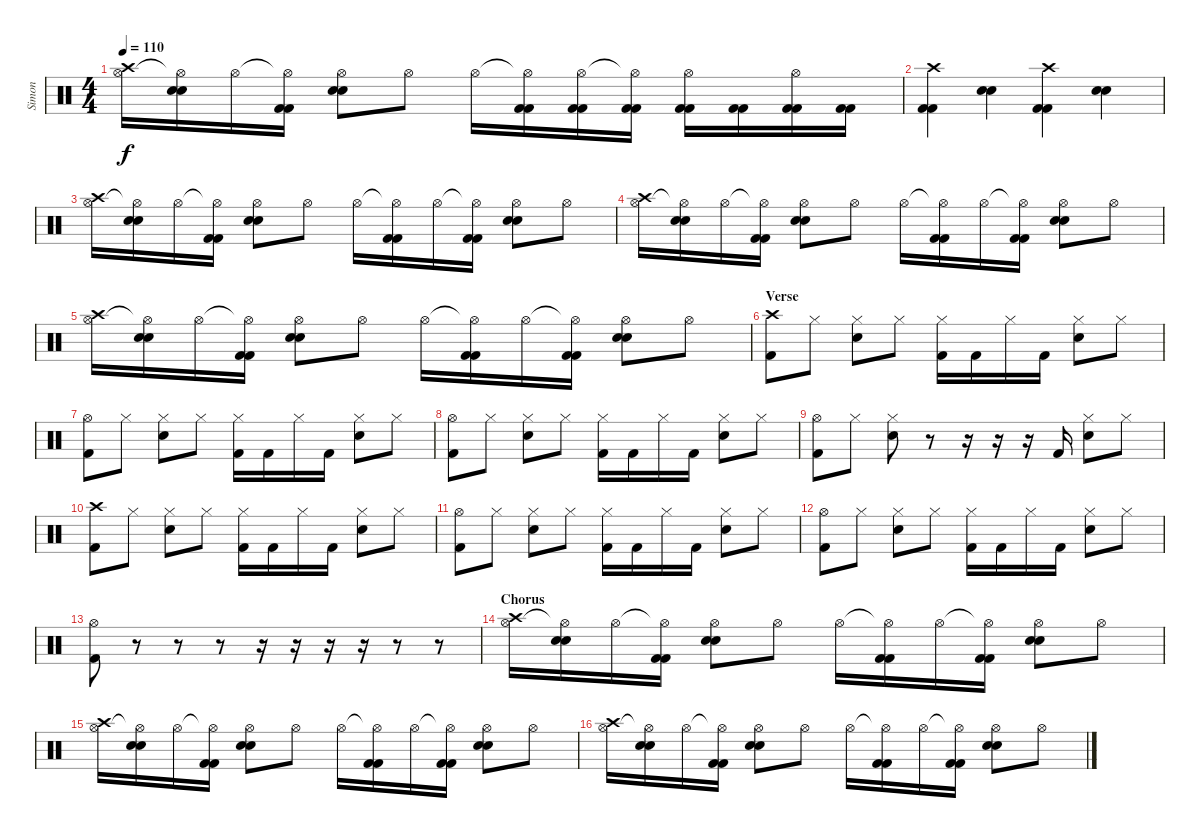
\track ("Simon" "Simon") {instrument percussion}
\staff {score}
\articulation defaults
\ts (4 4)
\tempo 110
\clef neutral
\ks c
("Hi-Hat (open)" "Crash high (hit)").16{dy f} ("Hi-Hat (open)"{t} "Electric Snare (hit)" "Electric Snare (hit)").16 "Hi-Hat (open)".16 ("Hi-Hat (open)"{t} "Kick (hit) 2" "Kick (hit) 2").16 ("Hi-Hat (open)" "Electric Snare (hit)" "Electric Snare (hit)").8 "Hi-Hat (open)".8 "Hi-Hat (open)".16 ("Hi-Hat (open)"{t} "Kick (hit) 2" "Kick (hit) 2").16 ("Hi-Hat (open)" "Kick (hit) 2" "Kick (hit) 2").16 ("Hi-Hat (open)"{t} "Kick (hit) 2" "Kick (hit) 2").16 ("Hi-Hat (open)" "Kick (hit) 2" "Kick (hit) 2").16 ("Kick (hit) 2" "Kick (hit) 2").16 ("Hi-Hat (open)" "Kick (hit) 2" "Kick (hit) 2").16 ("Kick (hit) 2" "Kick (hit) 2").16 |
("Crash high (hit)" "Kick (hit) 2" "Kick (hit) 2").4 ("Electric Snare (hit)" "Electric Snare (hit)").4 ("Crash high (hit)" "Kick (hit) 2" "Kick (hit) 2").4 ("Electric Snare (hit)" "Electric Snare (hit)").4 |
("Hi-Hat (open)" "Crash high (hit)").16 ("Hi-Hat (open)"{t} "Electric Snare (hit)" "Electric Snare (hit)").16 "Hi-Hat (open)".16 ("Hi-Hat (open)"{t} "Kick (hit) 2" "Kick (hit) 2").16 ("Hi-Hat (open)" "Electric Snare (hit)" "Electric Snare (hit)").8 "Hi-Hat (open)".8 "Hi-Hat (open)".16 ("Hi-Hat (open)"{t} "Kick (hit) 2" "Kick (hit) 2").16 "Hi-Hat (open)".16 ("Hi-Hat (open)"{t} "Kick (hit) 2" "Kick (hit) 2").16 ("Hi-Hat (open)" "Electric Snare (hit)" "Electric Snare (hit)").8 "Hi-Hat (open)".8 |
("Hi-Hat (open)" "Crash high (hit)").16 ("Hi-Hat (open)"{t} "Electric Snare (hit)" "Electric Snare (hit)").16 "Hi-Hat (open)".16 ("Hi-Hat (open)"{t} "Kick (hit) 2" "Kick (hit) 2").16 ("Hi-Hat (open)" "Electric Snare (hit)" "Electric Snare (hit)").8 "Hi-Hat (open)".8 "Hi-Hat (open)".16 ("Hi-Hat (open)"{t} "Kick (hit) 2" "Kick (hit) 2").16 "Hi-Hat (open)".16 ("Hi-Hat (open)"{t} "Kick (hit) 2" "Kick (hit) 2").16 ("Hi-Hat (open)" "Electric Snare (hit)" "Electric Snare (hit)").8 "Hi-Hat (open)".8 |
("Hi-Hat (open)" "Crash high (hit)").16 ("Hi-Hat (open)"{t} "Electric Snare (hit)" "Electric Snare (hit)").16 "Hi-Hat (open)".16 ("Hi-Hat (open)"{t} "Kick (hit) 2" "Kick (hit) 2").16 ("Hi-Hat (open)" "Electric Snare (hit)" "Electric Snare (hit)").8 "Hi-Hat (open)".8 "Hi-Hat (open)".16 ("Hi-Hat (open)"{t} "Kick (hit) 2" "Kick (hit) 2").16 "Hi-Hat (open)".16 ("Hi-Hat (open)"{t} "Kick (hit) 2" "Kick (hit) 2").16 ("Hi-Hat (open)" "Electric Snare (hit)" "Electric Snare (hit)").8 "Hi-Hat (open)".8 |
\section ("" "Verse")
("Crash high (hit)" "Kick (hit) 2").8 "Hi-Hat (closed)".8 ("Hi-Hat (closed)" "Electric Snare (hit)").8 "Hi-Hat (closed)".8 ("Hi-Hat (closed)" "Kick (hit) 2").16 "Kick (hit) 2".16 "Hi-Hat (closed)".16 "Kick (hit) 2".16 ("Hi-Hat (closed)" "Electric Snare (hit)").8 "Hi-Hat (closed)".8 |
("Hi-Hat (open)" "Kick (hit) 2").8 "Hi-Hat (closed)".8 ("Hi-Hat (closed)" "Electric Snare (hit)").8 "Hi-Hat (closed)".8 ("Hi-Hat (closed)" "Kick (hit) 2").16 "Kick (hit) 2".16 "Hi-Hat (closed)".16 "Kick (hit) 2".16 ("Hi-Hat (closed)" "Electric Snare (hit)").8 "Hi-Hat (closed)".8 |
("Hi-Hat (open)" "Kick (hit) 2").8 "Hi-Hat (closed)".8 ("Hi-Hat (closed)" "Electric Snare (hit)").8 "Hi-Hat (closed)".8 ("Hi-Hat (closed)" "Kick (hit) 2").16 "Kick (hit) 2".16 "Hi-Hat (closed)".16 "Kick (hit) 2".16 ("Hi-Hat (closed)" "Electric Snare (hit)").8 "Hi-Hat (closed)".8 |
("Hi-Hat (open)" "Kick (hit) 2").8 "Hi-Hat (closed)".8 ("Hi-Hat (closed)" "Electric Snare (hit)").8 r.8 r.16 r.16 r.16 "Kick (hit) 2".16 ("Hi-Hat (closed)" "Electric Snare (hit)").8 "Hi-Hat (closed)".8 |
("Crash high (hit)" "Kick (hit) 2").8 "Hi-Hat (closed)".8 ("Hi-Hat (closed)" "Electric Snare (hit)").8 "Hi-Hat (closed)".8 ("Hi-Hat (closed)" "Kick (hit) 2").16 "Kick (hit) 2".16 "Hi-Hat (closed)".16 "Kick (hit) 2".16 ("Hi-Hat (closed)" "Electric Snare (hit)").8 "Hi-Hat (closed)".8 |
("Hi-Hat (open)" "Kick (hit) 2").8 "Hi-Hat (closed)".8 ("Hi-Hat (closed)" "Electric Snare (hit)").8 "Hi-Hat (closed)".8 ("Hi-Hat (closed)" "Kick (hit) 2").16 "Kick (hit) 2".16 "Hi-Hat (closed)".16 "Kick (hit) 2".16 ("Hi-Hat (closed)" "Electric Snare (hit)").8 "Hi-Hat (closed)".8 |
("Hi-Hat (open)" "Kick (hit) 2").8 "Hi-Hat (closed)".8 ("Hi-Hat (closed)" "Electric Snare (hit)").8 "Hi-Hat (closed)".8 ("Hi-Hat (closed)" "Kick (hit) 2").16 "Kick (hit) 2".16 "Hi-Hat (closed)".16 "Kick (hit) 2".16 ("Hi-Hat (closed)" "Electric Snare (hit)").8 "Hi-Hat (closed)".8 |
("Hi-Hat (open)" "Kick (hit) 2").8 r.8 r.8 r.8 r.16 r.16 r.16 r.16 r.8 r.8 |
\section ("" "Chorus")
("Hi-Hat (open)" "Crash high (hit)").16 ("Hi-Hat (open)"{t} "Electric Snare (hit)" "Electric Snare (hit)").16 "Hi-Hat (open)".16 ("Hi-Hat (open)"{t} "Kick (hit) 2" "Kick (hit) 2").16 ("Hi-Hat (open)" "Electric Snare (hit)" "Electric Snare (hit)").8 "Hi-Hat (open)".8 "Hi-Hat (open)".16 ("Hi-Hat (open)"{t} "Kick (hit) 2" "Kick (hit) 2").16 "Hi-Hat (open)".16 ("Hi-Hat (open)"{t} "Kick (hit) 2" "Kick (hit) 2").16 ("Hi-Hat (open)" "Electric Snare (hit)" "Electric Snare (hit)").8 "Hi-Hat (open)".8 |
("Hi-Hat (open)" "Crash high (hit)").16 ("Hi-Hat (open)"{t} "Electric Snare (hit)" "Electric Snare (hit)").16 "Hi-Hat (open)".16 ("Hi-Hat (open)"{t} "Kick (hit) 2" "Kick (hit) 2").16 ("Hi-Hat (open)" "Electric Snare (hit)" "Electric Snare (hit)").8 "Hi-Hat (open)".8 "Hi-Hat (open)".16 ("Hi-Hat (open)"{t} "Kick (hit) 2" "Kick (hit) 2").16 "Hi-Hat (open)".16 ("Hi-Hat (open)"{t} "Kick (hit) 2" "Kick (hit) 2").16 ("Hi-Hat (open)" "Electric Snare (hit)" "Electric Snare (hit)").8 "Hi-Hat (open)".8 |
("Hi-Hat (open)" "Crash high (hit)").16 ("Hi-Hat (open)"{t} "Electric Snare (hit)" "Electric Snare (hit)").16 "Hi-Hat (open)".16 ("Hi-Hat (open)"{t} "Kick (hit) 2" "Kick (hit) 2").16 ("Hi-Hat (open)" "Electric Snare (hit)" "Electric Snare (hit)").8 "Hi-Hat (open)".8 "Hi-Hat (open)".16 ("Hi-Hat (open)"{t} "Kick (hit) 2" "Kick (hit) 2").16 "Hi-Hat (open)".16 ("Hi-Hat (open)"{t} "Kick (hit) 2" "Kick (hit) 2").16 ("Hi-Hat (open)" "Electric Snare (hit)" "Electric Snare (hit)").8 "Hi-Hat (open)".8
